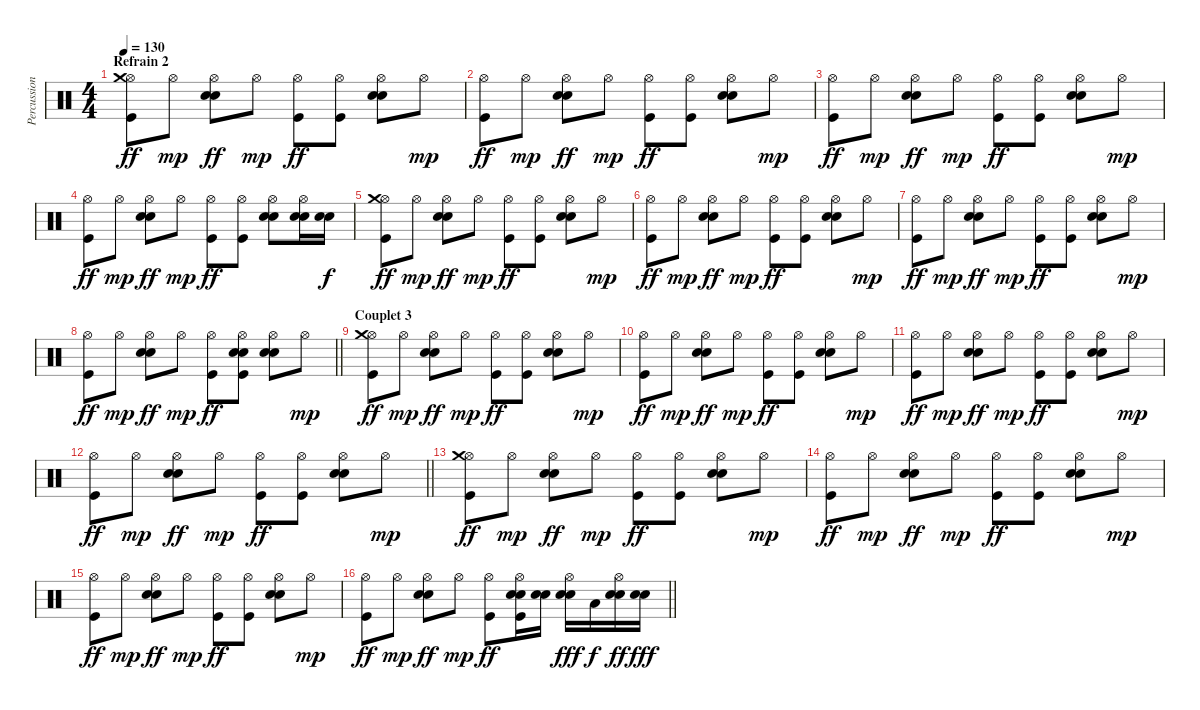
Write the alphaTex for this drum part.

\track ("Percussions" "Percussion") {instrument percussion}
\staff {score}
\articulation defaults
\ts (4 4)
\section ("" "Refrain 2")
\tempo 130
\clef neutral
\ks c
("Hi-Hat (open)" "Crash medium (hit)" "Kick (hit)").8{dy ff} "Hi-Hat (open)".8{dy mp} ("Hi-Hat (open)" "Snare (hit) 2" "Electric Snare (hit)").8{dy ff} "Hi-Hat (open)".8{dy mp} ("Hi-Hat (open)" "Kick (hit)").8{dy ff} ("Hi-Hat (open)" "Kick (hit)").8 ("Hi-Hat (open)" "Snare (hit) 2" "Electric Snare (hit)").8 "Hi-Hat (open)".8{dy mp} |
("Hi-Hat (open)" "Kick (hit)").8{dy ff} "Hi-Hat (open)".8{dy mp} ("Hi-Hat (open)" "Snare (hit) 2" "Electric Snare (hit)").8{dy ff} "Hi-Hat (open)".8{dy mp} ("Hi-Hat (open)" "Kick (hit)").8{dy ff} ("Hi-Hat (open)" "Kick (hit)").8 ("Hi-Hat (open)" "Snare (hit) 2" "Electric Snare (hit)").8 "Hi-Hat (open)".8{dy mp} |
("Hi-Hat (open)" "Kick (hit)").8{dy ff} "Hi-Hat (open)".8{dy mp} ("Hi-Hat (open)" "Snare (hit) 2" "Electric Snare (hit)").8{dy ff} "Hi-Hat (open)".8{dy mp} ("Hi-Hat (open)" "Kick (hit)").8{dy ff} ("Hi-Hat (open)" "Kick (hit)").8 ("Hi-Hat (open)" "Snare (hit) 2" "Electric Snare (hit)").8 "Hi-Hat (open)".8{dy mp} |
("Hi-Hat (open)" "Kick (hit)").8{dy ff} "Hi-Hat (open)".8{dy mp} ("Hi-Hat (open)" "Snare (hit) 2" "Electric Snare (hit)").8{dy ff} "Hi-Hat (open)".8{dy mp} ("Hi-Hat (open)" "Kick (hit)").8{dy ff} ("Hi-Hat (open)" "Kick (hit)").8 ("Hi-Hat (open)" "Snare (hit) 2" "Electric Snare (hit)").8 ("Hi-Hat (open)" "Snare (hit) 2" "Electric Snare (hit)").16 ("Snare (hit) 2" "Electric Snare (hit)").16{dy f} |
("Hi-Hat (open)" "Crash medium (hit)" "Kick (hit)").8{dy ff} "Hi-Hat (open)".8{dy mp} ("Hi-Hat (open)" "Snare (hit) 2" "Electric Snare (hit)").8{dy ff} "Hi-Hat (open)".8{dy mp} ("Hi-Hat (open)" "Kick (hit)").8{dy ff} ("Hi-Hat (open)" "Kick (hit)").8 ("Hi-Hat (open)" "Snare (hit) 2" "Electric Snare (hit)").8 "Hi-Hat (open)".8{dy mp} |
("Hi-Hat (open)" "Kick (hit)").8{dy ff} "Hi-Hat (open)".8{dy mp} ("Hi-Hat (open)" "Snare (hit) 2" "Electric Snare (hit)").8{dy ff} "Hi-Hat (open)".8{dy mp} ("Hi-Hat (open)" "Kick (hit)").8{dy ff} ("Hi-Hat (open)" "Kick (hit)").8 ("Hi-Hat (open)" "Snare (hit) 2" "Electric Snare (hit)").8 "Hi-Hat (open)".8{dy mp} |
("Hi-Hat (open)" "Kick (hit)").8{dy ff} "Hi-Hat (open)".8{dy mp} ("Hi-Hat (open)" "Snare (hit) 2" "Electric Snare (hit)").8{dy ff} "Hi-Hat (open)".8{dy mp} ("Hi-Hat (open)" "Kick (hit)").8{dy ff} ("Hi-Hat (open)" "Kick (hit)").8 ("Hi-Hat (open)" "Snare (hit) 2" "Electric Snare (hit)").8 "Hi-Hat (open)".8{dy mp} |
\barLineRight lightlight
("Hi-Hat (open)" "Kick (hit)").8{dy ff} "Hi-Hat (open)".8{dy mp} ("Hi-Hat (open)" "Snare (hit) 2" "Electric Snare (hit)").8{dy ff} "Hi-Hat (open)".8{dy mp} ("Hi-Hat (open)" "Kick (hit)").8{dy ff} ("Hi-Hat (open)" "Snare (hit) 2" "Electric Snare (hit)" "Kick (hit)").8 ("Hi-Hat (open)" "Snare (hit) 2" "Electric Snare (hit)").8 "Hi-Hat (open)".8{dy mp} |
\section ("" "Couplet 3")
("Hi-Hat (open)" "Crash medium (hit)" "Kick (hit)").8{dy ff} "Hi-Hat (open)".8{dy mp} ("Hi-Hat (open)" "Snare (hit) 2" "Electric Snare (hit)").8{dy ff} "Hi-Hat (open)".8{dy mp} ("Hi-Hat (open)" "Kick (hit)").8{dy ff} ("Hi-Hat (open)" "Kick (hit)").8 ("Hi-Hat (open)" "Snare (hit) 2" "Electric Snare (hit)").8 "Hi-Hat (open)".8{dy mp} |
("Hi-Hat (open)" "Kick (hit)").8{dy ff} "Hi-Hat (open)".8{dy mp} ("Hi-Hat (open)" "Snare (hit) 2" "Electric Snare (hit)").8{dy ff} "Hi-Hat (open)".8{dy mp} ("Hi-Hat (open)" "Kick (hit)").8{dy ff} ("Hi-Hat (open)" "Kick (hit)").8 ("Hi-Hat (open)" "Snare (hit) 2" "Electric Snare (hit)").8 "Hi-Hat (open)".8{dy mp} |
("Hi-Hat (open)" "Kick (hit)").8{dy ff} "Hi-Hat (open)".8{dy mp} ("Hi-Hat (open)" "Snare (hit) 2" "Electric Snare (hit)").8{dy ff} "Hi-Hat (open)".8{dy mp} ("Hi-Hat (open)" "Kick (hit)").8{dy ff} ("Hi-Hat (open)" "Kick (hit)").8 ("Hi-Hat (open)" "Snare (hit) 2" "Electric Snare (hit)").8 "Hi-Hat (open)".8{dy mp} |
\barLineRight lightlight
("Hi-Hat (open)" "Kick (hit)").8{dy ff} "Hi-Hat (open)".8{dy mp} ("Hi-Hat (open)" "Snare (hit) 2" "Electric Snare (hit)").8{dy ff} "Hi-Hat (open)".8{dy mp} ("Hi-Hat (open)" "Kick (hit)").8{dy ff} ("Hi-Hat (open)" "Kick (hit)").8 ("Hi-Hat (open)" "Snare (hit) 2" "Electric Snare (hit)").8 "Hi-Hat (open)".8{dy mp} |
("Hi-Hat (open)" "Crash medium (hit)" "Kick (hit)").8{dy ff} "Hi-Hat (open)".8{dy mp} ("Hi-Hat (open)" "Snare (hit) 2" "Electric Snare (hit)").8{dy ff} "Hi-Hat (open)".8{dy mp} ("Hi-Hat (open)" "Kick (hit)").8{dy ff} ("Hi-Hat (open)" "Kick (hit)").8 ("Hi-Hat (open)" "Snare (hit) 2" "Electric Snare (hit)").8 "Hi-Hat (open)".8{dy mp} |
("Hi-Hat (open)" "Kick (hit)").8{dy ff} "Hi-Hat (open)".8{dy mp} ("Hi-Hat (open)" "Snare (hit) 2" "Electric Snare (hit)").8{dy ff} "Hi-Hat (open)".8{dy mp} ("Hi-Hat (open)" "Kick (hit)").8{dy ff} ("Hi-Hat (open)" "Kick (hit)").8 ("Hi-Hat (open)" "Snare (hit) 2" "Electric Snare (hit)").8 "Hi-Hat (open)".8{dy mp} |
("Hi-Hat (open)" "Kick (hit)").8{dy ff} "Hi-Hat (open)".8{dy mp} ("Hi-Hat (open)" "Snare (hit) 2" "Electric Snare (hit)").8{dy ff} "Hi-Hat (open)".8{dy mp} ("Hi-Hat (open)" "Kick (hit)").8{dy ff} ("Hi-Hat (open)" "Kick (hit)").8 ("Hi-Hat (open)" "Snare (hit) 2" "Electric Snare (hit)").8 "Hi-Hat (open)".8{dy mp} |
\barLineRight lightlight
("Hi-Hat (open)" "Kick (hit)").8{dy ff} "Hi-Hat (open)".8{dy mp} ("Hi-Hat (open)" "Snare (hit) 2" "Electric Snare (hit)").8{dy ff} "Hi-Hat (open)".8{dy mp} ("Hi-Hat (open)" "Kick (hit)").8{dy ff} ("Hi-Hat (open)" "Snare (hit) 2" "Electric Snare (hit)" "Kick (hit)").16 ("Snare (hit) 2" "Electric Snare (hit)").16 ("Hi-Hat (open)" "Snare (hit) 2" "Electric Snare (hit)").16{dy fff} "Low Floor Tom (hit)".16{dy f} ("Hi-Hat (open)" "Snare (hit) 2" "Electric Snare (hit)").16{dy ff} ("Snare (hit) 2" "Electric Snare (hit)").16{dy fff}
